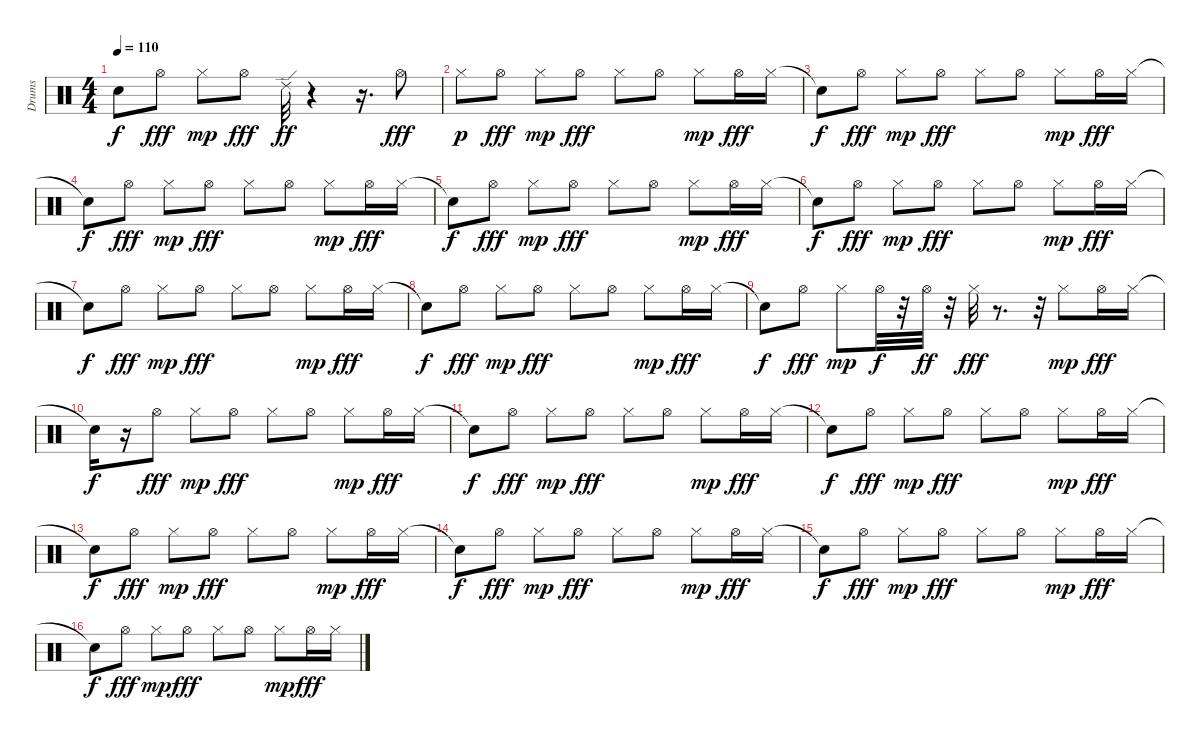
\track ("Drums" "Drums") {instrument percussion}
\staff {score}
\articulation defaults
\ts (4 4)
\tempo 110
\clef neutral
\ks c "Snare (hit)"{t}.8{dy f} "Hi-Hat (open)".8{dy fff} "Hi-Hat (closed)".8{dy mp} "Hi-Hat (open)".8{dy fff} "Ride (edge) 2".32{dy ff}
r.4 r.16{d} "Hi-Hat (open)".8{dy fff} |
"Hi-Hat (closed)".8{dy p} "Hi-Hat (open)".8{dy fff} "Hi-Hat (closed)".8{dy mp} "Hi-Hat (open)".8{dy fff} "Hi-Hat (closed)".8 "Hi-Hat (open)".8 "Hi-Hat (closed)".8{dy mp} "Hi-Hat (open)".16{dy fff} "Hi-Hat (closed)".16 |
"Snare (hit)"{t}.8{dy f} "Hi-Hat (open)".8{dy fff} "Hi-Hat (closed)".8{dy mp} "Hi-Hat (open)".8{dy fff} "Hi-Hat (closed)".8 "Hi-Hat (open)".8 "Hi-Hat (closed)".8{dy mp} "Hi-Hat (open)".16{dy fff} "Hi-Hat (closed)".16 |
"Snare (hit)"{t}.8{dy f} "Hi-Hat (open)".8{dy fff} "Hi-Hat (closed)".8{dy mp} "Hi-Hat (open)".8{dy fff} "Hi-Hat (closed)".8 "Hi-Hat (open)".8 "Hi-Hat (closed)".8{dy mp} "Hi-Hat (open)".16{dy fff} "Hi-Hat (closed)".16 |
"Snare (hit)"{t}.8{dy f} "Hi-Hat (open)".8{dy fff} "Hi-Hat (closed)".8{dy mp} "Hi-Hat (open)".8{dy fff} "Hi-Hat (closed)".8 "Hi-Hat (open)".8 "Hi-Hat (closed)".8{dy mp} "Hi-Hat (open)".16{dy fff} "Hi-Hat (closed)".16 |
"Snare (hit)"{t}.8{dy f} "Hi-Hat (open)".8{dy fff} "Hi-Hat (closed)".8{dy mp} "Hi-Hat (open)".8{dy fff} "Hi-Hat (closed)".8 "Hi-Hat (open)".8 "Hi-Hat (closed)".8{dy mp} "Hi-Hat (open)".16{dy fff} "Hi-Hat (closed)".16 |
"Snare (hit)"{t}.8{dy f} "Hi-Hat (open)".8{dy fff} "Hi-Hat (closed)".8{dy mp} "Hi-Hat (open)".8{dy fff} "Hi-Hat (closed)".8 "Hi-Hat (open)".8 "Hi-Hat (closed)".8{dy mp} "Hi-Hat (open)".16{dy fff} "Hi-Hat (closed)".16 |
"Snare (hit)"{t}.8{dy f} "Hi-Hat (open)".8{dy fff} "Hi-Hat (closed)".8{dy mp} "Hi-Hat (open)".8{dy fff} "Hi-Hat (closed)".8 "Hi-Hat (open)".8 "Hi-Hat (closed)".8{dy mp} "Hi-Hat (open)".16{dy fff} "Hi-Hat (closed)".16 |
"Snare (hit)"{t}.8{dy f} "Hi-Hat (open)".8{dy fff} "Hi-Hat (closed)".8{dy mp} "Hi-Hat (open)".32{dy f} r.32 "Hi-Hat (open)".32{dy ff} r.32 "Hi-Hat (closed)".32{dy fff} r.8{d} r.32 "Hi-Hat (closed)".8{dy mp} "Hi-Hat (open)".16{dy fff} "Hi-Hat (closed)".16 |
"Snare (hit)"{t}.16{dy f} r.16 "Hi-Hat (open)".8{dy fff} "Hi-Hat (closed)".8{dy mp} "Hi-Hat (open)".8{dy fff} "Hi-Hat (closed)".8 "Hi-Hat (open)".8 "Hi-Hat (closed)".8{dy mp} "Hi-Hat (open)".16{dy fff} "Hi-Hat (closed)".16 |
"Snare (hit)"{t}.8{dy f} "Hi-Hat (open)".8{dy fff} "Hi-Hat (closed)".8{dy mp} "Hi-Hat (open)".8{dy fff} "Hi-Hat (closed)".8 "Hi-Hat (open)".8 "Hi-Hat (closed)".8{dy mp} "Hi-Hat (open)".16{dy fff} "Hi-Hat (closed)".16 |
"Snare (hit)"{t}.8{dy f} "Hi-Hat (open)".8{dy fff} "Hi-Hat (closed)".8{dy mp} "Hi-Hat (open)".8{dy fff} "Hi-Hat (closed)".8 "Hi-Hat (open)".8 "Hi-Hat (closed)".8{dy mp} "Hi-Hat (open)".16{dy fff} "Hi-Hat (closed)".16 |
"Snare (hit)"{t}.8{dy f} "Hi-Hat (open)".8{dy fff} "Hi-Hat (closed)".8{dy mp} "Hi-Hat (open)".8{dy fff} "Hi-Hat (closed)".8 "Hi-Hat (open)".8 "Hi-Hat (closed)".8{dy mp} "Hi-Hat (open)".16{dy fff} "Hi-Hat (closed)".16 |
"Snare (hit)"{t}.8{dy f} "Hi-Hat (open)".8{dy fff} "Hi-Hat (closed)".8{dy mp} "Hi-Hat (open)".8{dy fff} "Hi-Hat (closed)".8 "Hi-Hat (open)".8 "Hi-Hat (closed)".8{dy mp} "Hi-Hat (open)".16{dy fff} "Hi-Hat (closed)".16 |
"Snare (hit)"{t}.8{dy f} "Hi-Hat (open)".8{dy fff} "Hi-Hat (closed)".8{dy mp} "Hi-Hat (open)".8{dy fff} "Hi-Hat (closed)".8 "Hi-Hat (open)".8 "Hi-Hat (closed)".8{dy mp} "Hi-Hat (open)".16{dy fff} "Hi-Hat (closed)".16 |
"Snare (hit)"{t}.8{dy f} "Hi-Hat (open)".8{dy fff} "Hi-Hat (closed)".8{dy mp} "Hi-Hat (open)".8{dy fff} "Hi-Hat (closed)".8 "Hi-Hat (open)".8 "Hi-Hat (closed)".8{dy mp} "Hi-Hat (open)".16{dy fff} "Hi-Hat (closed)".16
